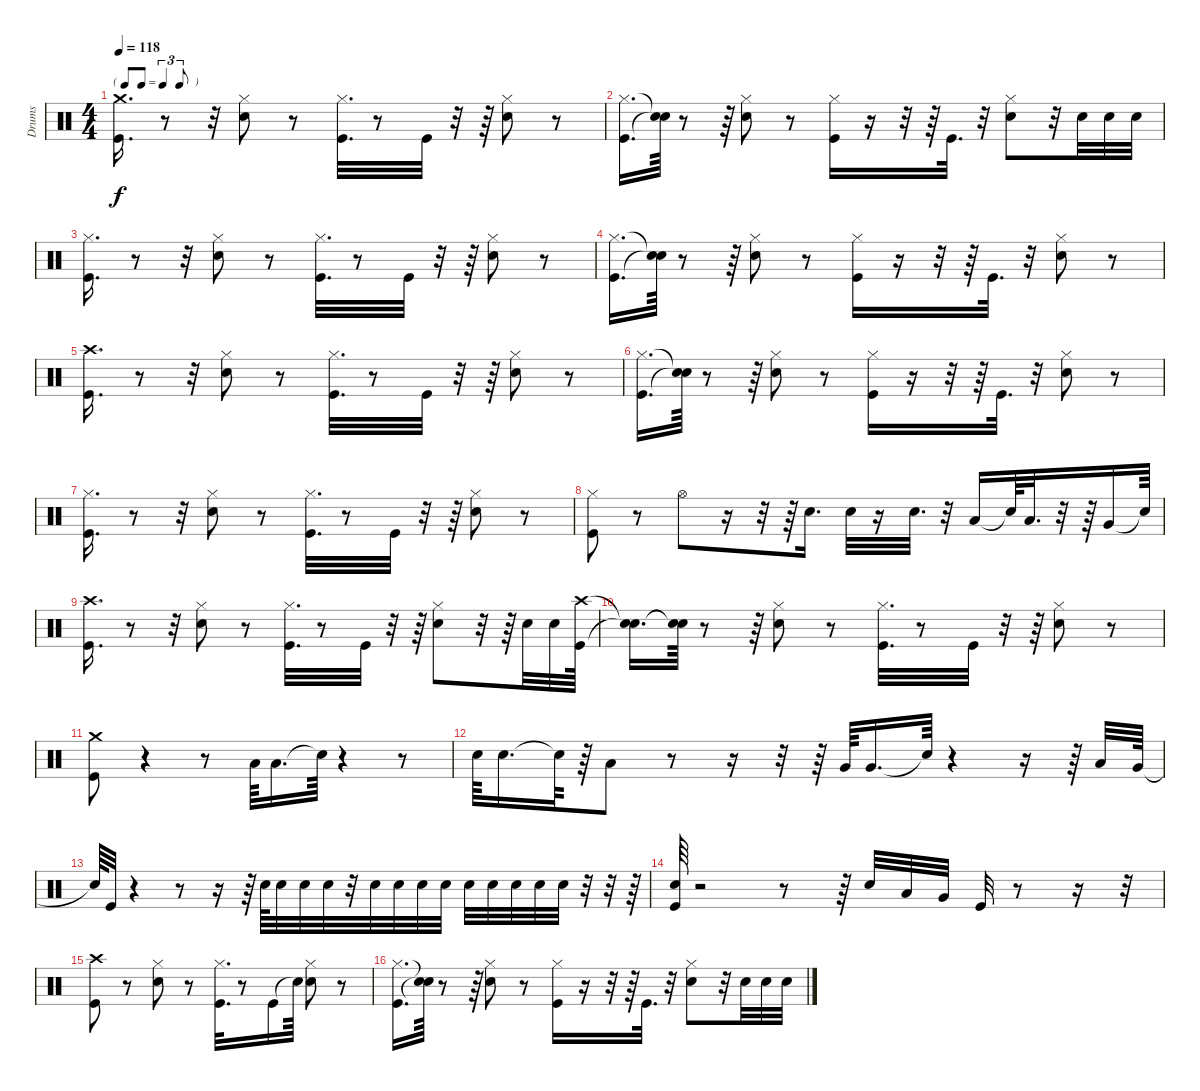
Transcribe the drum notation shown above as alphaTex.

\track ("Drums" "Drums") {instrument percussion}
\staff {score}
\articulation defaults
\ts (4 4)
\tf triplet8th
\tempo 118
\clef neutral
\ks c
("Kick (hit)" "Crash medium (hit)").16{d dy f} r.8 r.32 ("Snare (hit) 2" "Hi-Hat (closed)").8 r.8 ("Hi-Hat (closed)" "Kick (hit)").32{d} r.8 "Kick (hit)".32 r.32 r.64 ("Hi-Hat (closed)" "Snare (hit) 2").8 r.8 |
("Hi-Hat (closed)" "Kick (hit)").16{d} ("Snare (hit)"{t} "Snare (hit)"{t}).64 r.8 r.64 ("Snare (hit) 2" "Hi-Hat (closed)").8 r.8 ("Kick (hit)" "Hi-Hat (closed)").16 r.16 r.32 r.64 "Kick (hit)".32{d} r.32 ("Hi-Hat (closed)" "Snare (hit) 2").8 r.32 "Snare (hit) 2".32 "Snare (hit) 2".32 "Snare (hit) 2".32 |
("Kick (hit)" "Hi-Hat (closed)").16{d} r.8 r.32 ("Snare (hit) 2" "Hi-Hat (closed)").8 r.8 ("Hi-Hat (closed)" "Kick (hit)").32{d} r.8 "Kick (hit)".32 r.32 r.64 ("Hi-Hat (closed)" "Snare (hit) 2").8 r.8 |
("Hi-Hat (closed)" "Kick (hit)").16{d} ("Snare (hit)"{t} "Snare (hit)"{t}).64 r.8 r.64 ("Snare (hit) 2" "Hi-Hat (closed)").8 r.8 ("Kick (hit)" "Hi-Hat (closed)").16 r.16 r.32 r.64 "Kick (hit)".32{d} r.32 ("Hi-Hat (closed)" "Snare (hit) 2").8 r.8 |
("Kick (hit)" "Crash high (hit)").16{d} r.8 r.32 ("Snare (hit) 2" "Hi-Hat (closed)").8 r.8 ("Hi-Hat (closed)" "Kick (hit)").32{d} r.8 "Kick (hit)".32 r.32 r.64 ("Hi-Hat (closed)" "Snare (hit) 2").8 r.8 |
("Hi-Hat (closed)" "Kick (hit)").16{d} ("Snare (hit)"{t} "Snare (hit)"{t}).64 r.8 r.64 ("Snare (hit) 2" "Hi-Hat (closed)").8 r.8 ("Kick (hit)" "Hi-Hat (closed)").16 r.16 r.32 r.64 "Kick (hit)".32{d} r.32 ("Hi-Hat (closed)" "Snare (hit) 2").8 r.8 |
("Kick (hit)" "Hi-Hat (closed)").16{d} r.8 r.32 ("Snare (hit) 2" "Hi-Hat (closed)").8 r.8 ("Hi-Hat (closed)" "Kick (hit)").32{d} r.8 "Kick (hit)".32 r.32 r.64 ("Hi-Hat (closed)" "Snare (hit) 2").8 r.8 |
("Kick (hit)" "Hi-Hat (closed)").8 r.8 "Hi-Hat (open)".8 r.16 r.32 r.64 "Snare (hit) 2".16{d} "Snare (hit) 2".32 r.16 "Snare (hit) 2".32{d} r.32 "Low Tom (hit)".16 "Snare (hit)"{t}.64 "Low Tom (hit)".32{d} r.32 r.64 "Very Low Tom (hit)".16 "Snare (hit)"{t}.64 |
("Kick (hit)" "Crash high (hit)").16{d} r.8 r.32 ("Snare (hit) 2" "Hi-Hat (closed)").8 r.8 ("Hi-Hat (closed)" "Kick (hit)").32{d} r.8 "Kick (hit)".32 r.32 r.64 ("Hi-Hat (closed)" "Snare (hit) 2").8 r.32 r.64 "Snare (hit) 2".32 "Snare (hit) 2".32 ("Crash high (hit)" "Kick (hit)").64 |
("Snare (hit)"{t} "Snare (hit)"{t}).16{d} ("Snare (hit)"{t} "Snare (hit)"{t}).64 r.8 r.64 ("Snare (hit) 2" "Hi-Hat (closed)").8 r.8 ("Hi-Hat (closed)" "Kick (hit)").32{d} r.8 "Kick (hit)".32 r.32 r.64 ("Snare (hit) 2" "Hi-Hat (closed)").8 r.8 |
("Kick (hit)" "Crash medium (hit)").8 r.4 r.8 "Low Tom (hit)".64 "Low Tom (hit)".16{d} "Snare (hit)"{t}.64 r.4 r.8 |
"Snare (hit) 2".64 "Snare (hit) 2".16{d} "Snare (hit)"{t}.64 r.64 "Low Tom (hit)".8 r.8 r.16 r.32 r.64 "Very Low Tom (hit)".64 "Very Low Tom (hit)".16{d} "Snare (hit)"{t}.64 r.4 r.16 r.64 "Low Tom (hit)".32 "Very Low Tom (hit)".64 |
"Snare (hit)"{t}.64 "Kick (hit)".32 r.4 r.8 r.16 r.64 "Snare (hit) 2".64 "Snare (hit) 2".32 "Snare (hit) 2".32 "Snare (hit) 2".32 r.32 "Snare (hit) 2".32 "Snare (hit) 2".32 "Snare (hit) 2".32 "Snare (hit) 2".32 "Snare (hit) 2".32 "Snare (hit) 2".32 "Snare (hit) 2".32 "Snare (hit) 2".32 "Snare (hit) 2".32 r.32 r.32 r.64 |
("Kick (hit)" "Snare (hit) 2").64 r.2 r.8 r.64 "Snare (hit) 2".32 "Low Tom (hit)".32 "Very Low Tom (hit)".32 "Kick (hit)".32 r.8 r.16 r.32 |
("Kick (hit)" "Crash high (hit)").8 r.8 ("Hi-Hat (closed)" "Snare (hit) 2").8 r.8 ("Hi-Hat (closed)" "Kick (hit)").32{d} r.8 "Kick (hit)".16 "Snare (hit)"{t}.64 ("Hi-Hat (closed)" "Snare (hit) 2").8 r.8 |
("Kick (hit)" "Hi-Hat (closed)").16{d} ("Snare (hit)"{t} "Snare (hit)"{t}).64 r.8 r.64 ("Snare (hit) 2" "Hi-Hat (closed)").8 r.8 ("Kick (hit)" "Hi-Hat (closed)").16 r.16 r.32 r.64 "Kick (hit)".32{d} r.32 ("Snare (hit) 2" "Hi-Hat (closed)").8 r.32 "Snare (hit) 2".32 "Snare (hit) 2".32 "Snare (hit) 2".32
